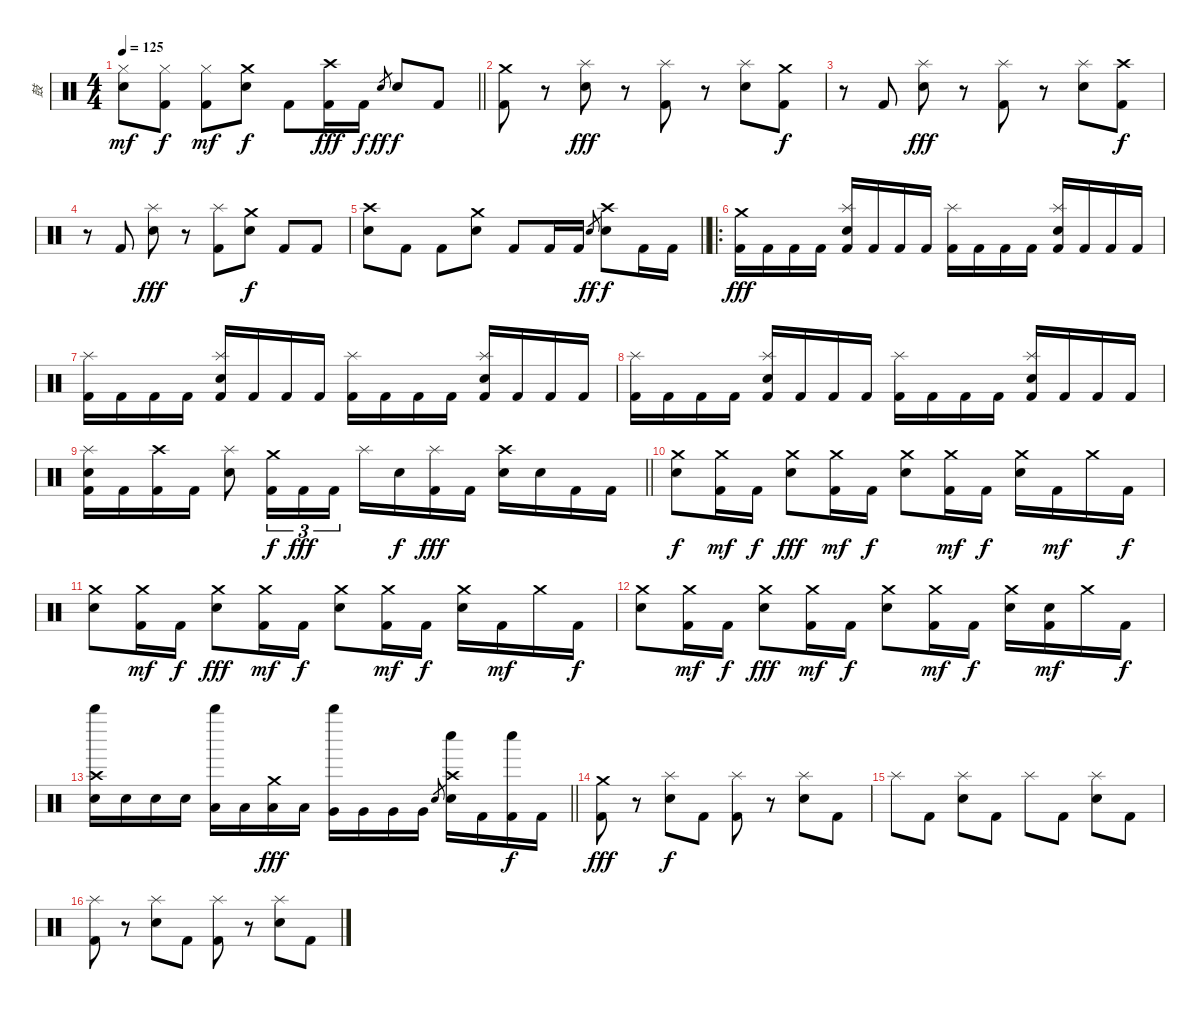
\track ("鼓" "鼓") {instrument percussion}
\staff {score}
\articulation defaults
\ts (4 4)
\tempo 125
\clef neutral
\barLineRight lightlight
\ks c
("Hi-Hat (closed)" "Snare (hit) 2").8{dy mf} ("Hi-Hat (closed)" "Kick (hit) 2").8{dy f} ("Hi-Hat (closed)" "Kick (hit) 2").8{dy mf} ("Crash medium (hit)" "Snare (hit) 2").8{dy f} "Kick (hit) 2".8 ("Crash high (hit)" "Kick (hit) 2").16{dy fff} "Kick (hit) 2".16{dy f} "Snare (hit) 2".8{gr dy ff} "Snare (hit) 2".8{dy f} "Kick (hit) 2".8 |
("Crash medium (hit)" "Kick (hit) 2").8 r.8 ("Splash (hit)" "Snare (hit) 2").8{dy fff} r.8 ("Splash (hit)" "Kick (hit) 2").8 r.8 ("Splash (hit)" "Snare (hit) 2").8 ("Crash medium (hit)" "Kick (hit) 2").8{dy f} |
r.8 "Kick (hit) 2".8 ("Splash (hit)" "Snare (hit) 2").8{dy fff} r.8 ("Splash (hit)" "Kick (hit) 2").8 r.8 ("Splash (hit)" "Snare (hit) 2").8 ("Crash high (hit)" "Kick (hit) 2").8{dy f} |
r.8 "Kick (hit) 2".8 ("Splash (hit)" "Snare (hit) 2").8{dy fff} r.8 ("Splash (hit)" "Kick (hit) 2").8 ("Crash medium (hit)" "Snare (hit) 2").8{dy f} "Kick (hit) 2".8 "Kick (hit) 2".8 |
\barLineRight lightlight
("Crash high (hit)" "Snare (hit) 2").8 "Kick (hit) 2".8 "Kick (hit) 2".8 ("Crash medium (hit)" "Snare (hit) 2").8 "Kick (hit) 2".8 "Kick (hit) 2".16 "Kick (hit) 2".16 "Snare (hit) 2".8{gr dy ff} ("Crash high (hit)" "Snare (hit) 2").8{dy f} "Kick (hit) 2".16 "Kick (hit) 2".16 |
\ro
("Crash medium (hit)" "Kick (hit) 2").16{dy fff} "Kick (hit) 2".16 "Kick (hit) 2".16 "Kick (hit) 2".16 ("Splash (hit)" "Electric Snare (hit)" "Kick (hit) 2").16 "Kick (hit) 2".16 "Kick (hit) 2".16 "Kick (hit) 2".16 ("Splash (hit)" "Kick (hit) 2").16 "Kick (hit) 2".16 "Kick (hit) 2".16 "Kick (hit) 2".16 ("Splash (hit)" "Electric Snare (hit)" "Kick (hit) 2").16 "Kick (hit) 2".16 "Kick (hit) 2".16 "Kick (hit) 2".16 |
("Splash (hit)" "Kick (hit) 2").16 "Kick (hit) 2".16 "Kick (hit) 2".16 "Kick (hit) 2".16 ("Splash (hit)" "Electric Snare (hit)" "Kick (hit) 2").16 "Kick (hit) 2".16 "Kick (hit) 2".16 "Kick (hit) 2".16 ("Splash (hit)" "Kick (hit) 2").16 "Kick (hit) 2".16 "Kick (hit) 2".16 "Kick (hit) 2".16 ("Splash (hit)" "Electric Snare (hit)" "Kick (hit) 2").16 "Kick (hit) 2".16 "Kick (hit) 2".16 "Kick (hit) 2".16 |
("Splash (hit)" "Kick (hit) 2").16 "Kick (hit) 2".16 "Kick (hit) 2".16 "Kick (hit) 2".16 ("Splash (hit)" "Electric Snare (hit)" "Kick (hit) 2").16 "Kick (hit) 2".16 "Kick (hit) 2".16 "Kick (hit) 2".16 ("Splash (hit)" "Kick (hit) 2").16 "Kick (hit) 2".16 "Kick (hit) 2".16 "Kick (hit) 2".16 ("Splash (hit)" "Electric Snare (hit)" "Kick (hit) 2").16 "Kick (hit) 2".16 "Kick (hit) 2".16 "Kick (hit) 2".16 |
\barLineRight lightlight
("Splash (hit)" "Electric Snare (hit)" "Kick (hit) 2").16 "Kick (hit) 2".16 ("Crash high (hit)" "Kick (hit) 2").16 "Kick (hit) 2".16 ("Splash (hit)" "Electric Snare (hit)").8 ("Crash medium (hit)" "Kick (hit) 2").16{tu (3 2) dy f} "Kick (hit) 2".16{tu (3 2) dy fff} "Kick (hit) 2".16{tu (3 2)} "Splash (hit)".16 "Electric Snare (hit)".16{dy f} ("Splash (hit)" "Kick (hit) 2").16{dy fff} "Kick (hit) 2".16 ("Crash high (hit)" "Electric Snare (hit)").16 "Electric Snare (hit)".16 "Kick (hit) 2".16 "Kick (hit) 2".16 |
("Crash medium (hit)" "Electric Snare (hit)").8{dy f} ("Crash medium (hit)" "Kick (hit) 2").16{dy mf} "Kick (hit) 2".16{dy f} ("Crash medium (hit)" "Electric Snare (hit)").8{dy fff} ("Crash medium (hit)" "Kick (hit) 2").16{dy mf} "Kick (hit) 2".16{dy f} ("Crash medium (hit)" "Electric Snare (hit)").8 ("Crash medium (hit)" "Kick (hit) 2").16{dy mf} "Kick (hit) 2".16{dy f} ("Crash medium (hit)" "Electric Snare (hit)").16 "Kick (hit) 2".16{dy mf} "Crash medium (hit)".16 "Kick (hit) 2".16{dy f} |
("Crash medium (hit)" "Electric Snare (hit)").8 ("Crash medium (hit)" "Kick (hit) 2").16{dy mf} "Kick (hit) 2".16{dy f} ("Crash medium (hit)" "Electric Snare (hit)").8{dy fff} ("Crash medium (hit)" "Kick (hit) 2").16{dy mf} "Kick (hit) 2".16{dy f} ("Crash medium (hit)" "Electric Snare (hit)").8 ("Crash medium (hit)" "Kick (hit) 2").16{dy mf} "Kick (hit) 2".16{dy f} ("Crash medium (hit)" "Electric Snare (hit)").16 "Kick (hit) 2".16{dy mf} "Crash medium (hit)".16 "Kick (hit) 2".16{dy f} |
("Crash medium (hit)" "Electric Snare (hit)").8 ("Crash medium (hit)" "Kick (hit) 2").16{dy mf} "Kick (hit) 2".16{dy f} ("Crash medium (hit)" "Electric Snare (hit)").8{dy fff} ("Crash medium (hit)" "Kick (hit) 2").16{dy mf} "Kick (hit) 2".16{dy f} ("Crash medium (hit)" "Electric Snare (hit)").8 ("Crash medium (hit)" "Kick (hit) 2").16{dy mf} "Kick (hit) 2".16{dy f} ("Crash medium (hit)" "Electric Snare (hit)").16 ("Electric Snare (hit)" "Kick (hit) 2").16{dy mf} "Crash medium (hit)".16 "Kick (hit) 2".16{dy f} |
\barLineRight lightlight
("Crash high (hit)" "Whistle high (hit)" "Electric Snare (hit)").16 "Electric Snare (hit)".16 "Electric Snare (hit)".16 "Electric Snare (hit)".16 ("Whistle high (hit)" "Low Tom (hit)").16 "Low Tom (hit)".16 ("Crash medium (hit)" "Low Tom (hit)").16{dy fff} "Low Tom (hit)".16 ("Whistle high (hit)" "Very Low Tom (hit)").16 "Very Low Tom (hit)".16 "Very Low Tom (hit)".16 "Very Low Tom (hit)".16 "Electric Snare (hit)".8{gr} ("Crash high (hit)" "Whistle low (hit)" "Electric Snare (hit)").16 "Kick (hit) 2".16 ("Whistle low (hit)" "Kick (hit) 2").16{dy f} "Kick (hit) 2".16 |
("Crash medium (hit)" "Kick (hit) 2").8{dy fff} r.8 ("Splash (hit)" "Electric Snare (hit)").8{dy f} "Kick (hit) 2".8 ("Splash (hit)" "Kick (hit) 2").8 r.8 ("Splash (hit)" "Electric Snare (hit)").8 "Kick (hit) 2".8 |
"Splash (hit)".8 "Kick (hit) 2".8 ("Splash (hit)" "Electric Snare (hit)").8 "Kick (hit) 2".8 "Splash (hit)".8 "Kick (hit) 2".8 ("Splash (hit)" "Electric Snare (hit)").8 "Kick (hit) 2".8 |
("Splash (hit)" "Kick (hit) 2").8 r.8 ("Splash (hit)" "Electric Snare (hit)").8 "Kick (hit) 2".8 ("Splash (hit)" "Kick (hit) 2").8 r.8 ("Splash (hit)" "Electric Snare (hit)").8 "Kick (hit) 2".8
